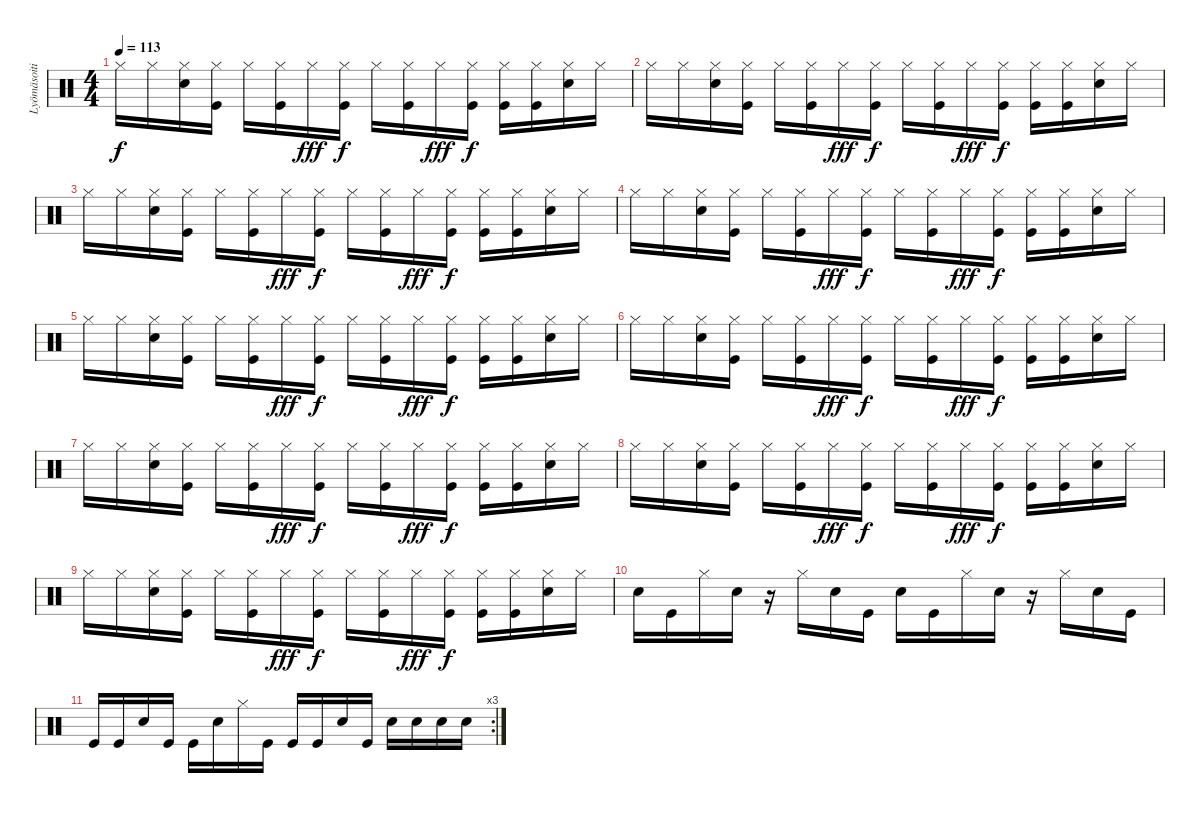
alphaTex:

\track ("Lyömäsoitin" "Lyömäsoiti") {instrument percussion}
\staff {score}
\articulation defaults
\ts (4 4)
\tempo 113
\clef neutral
\ks c "Hi-Hat (closed)".16{dy f} "Hi-Hat (closed)".16
("Hi-Hat (closed)" "Snare (hit) 2").16 ("Hi-Hat (closed)" "Kick (hit)").16 "Hi-Hat (closed)".16 ("Hi-Hat (closed)" "Kick (hit)").16 "Hi-Hat (closed)".16{dy fff} ("Hi-Hat (closed)" "Kick (hit)").16{dy f} "Hi-Hat (closed)".16 ("Hi-Hat (closed)" "Kick (hit)").16 "Hi-Hat (closed)".16{dy fff} ("Hi-Hat (closed)" "Kick (hit)").16{dy f} ("Hi-Hat (closed)" "Kick (hit)").16 ("Hi-Hat (closed)" "Kick (hit)").16 ("Hi-Hat (closed)" "Snare (hit) 2").16 "Hi-Hat (closed)".16 |
"Hi-Hat (closed)".16 "Hi-Hat (closed)".16 ("Hi-Hat (closed)" "Snare (hit) 2").16 ("Hi-Hat (closed)" "Kick (hit)").16 "Hi-Hat (closed)".16 ("Hi-Hat (closed)" "Kick (hit)").16 "Hi-Hat (closed)".16{dy fff} ("Hi-Hat (closed)" "Kick (hit)").16{dy f} "Hi-Hat (closed)".16 ("Hi-Hat (closed)" "Kick (hit)").16 "Hi-Hat (closed)".16{dy fff} ("Hi-Hat (closed)" "Kick (hit)").16{dy f} ("Hi-Hat (closed)" "Kick (hit)").16 ("Hi-Hat (closed)" "Kick (hit)").16 ("Hi-Hat (closed)" "Snare (hit) 2").16 "Hi-Hat (closed)".16 |
"Hi-Hat (closed)".16 "Hi-Hat (closed)".16 ("Hi-Hat (closed)" "Snare (hit) 2").16 ("Hi-Hat (closed)" "Kick (hit)").16 "Hi-Hat (closed)".16 ("Hi-Hat (closed)" "Kick (hit)").16 "Hi-Hat (closed)".16{dy fff} ("Hi-Hat (closed)" "Kick (hit)").16{dy f} "Hi-Hat (closed)".16 ("Hi-Hat (closed)" "Kick (hit)").16 "Hi-Hat (closed)".16{dy fff} ("Hi-Hat (closed)" "Kick (hit)").16{dy f} ("Hi-Hat (closed)" "Kick (hit)").16 ("Hi-Hat (closed)" "Kick (hit)").16 ("Hi-Hat (closed)" "Snare (hit) 2").16 "Hi-Hat (closed)".16 |
"Hi-Hat (closed)".16 "Hi-Hat (closed)".16 ("Hi-Hat (closed)" "Snare (hit) 2").16 ("Hi-Hat (closed)" "Kick (hit)").16 "Hi-Hat (closed)".16 ("Hi-Hat (closed)" "Kick (hit)").16 "Hi-Hat (closed)".16{dy fff} ("Hi-Hat (closed)" "Kick (hit)").16{dy f} "Hi-Hat (closed)".16 ("Hi-Hat (closed)" "Kick (hit)").16 "Hi-Hat (closed)".16{dy fff} ("Hi-Hat (closed)" "Kick (hit)").16{dy f} ("Hi-Hat (closed)" "Kick (hit)").16 ("Hi-Hat (closed)" "Kick (hit)").16 ("Hi-Hat (closed)" "Snare (hit) 2").16 "Hi-Hat (closed)".16 |
"Hi-Hat (closed)".16 "Hi-Hat (closed)".16 ("Hi-Hat (closed)" "Snare (hit) 2").16 ("Hi-Hat (closed)" "Kick (hit)").16 "Hi-Hat (closed)".16 ("Hi-Hat (closed)" "Kick (hit)").16 "Hi-Hat (closed)".16{dy fff} ("Hi-Hat (closed)" "Kick (hit)").16{dy f} "Hi-Hat (closed)".16 ("Hi-Hat (closed)" "Kick (hit)").16 "Hi-Hat (closed)".16{dy fff} ("Hi-Hat (closed)" "Kick (hit)").16{dy f} ("Hi-Hat (closed)" "Kick (hit)").16 ("Hi-Hat (closed)" "Kick (hit)").16 ("Hi-Hat (closed)" "Snare (hit) 2").16 "Hi-Hat (closed)".16 |
"Hi-Hat (closed)".16 "Hi-Hat (closed)".16 ("Hi-Hat (closed)" "Snare (hit) 2").16 ("Hi-Hat (closed)" "Kick (hit)").16 "Hi-Hat (closed)".16 ("Hi-Hat (closed)" "Kick (hit)").16 "Hi-Hat (closed)".16{dy fff} ("Hi-Hat (closed)" "Kick (hit)").16{dy f} "Hi-Hat (closed)".16 ("Hi-Hat (closed)" "Kick (hit)").16 "Hi-Hat (closed)".16{dy fff} ("Hi-Hat (closed)" "Kick (hit)").16{dy f} ("Hi-Hat (closed)" "Kick (hit)").16 ("Hi-Hat (closed)" "Kick (hit)").16 ("Hi-Hat (closed)" "Snare (hit) 2").16 "Hi-Hat (closed)".16 |
"Hi-Hat (closed)".16 "Hi-Hat (closed)".16 ("Hi-Hat (closed)" "Snare (hit) 2").16 ("Hi-Hat (closed)" "Kick (hit)").16 "Hi-Hat (closed)".16 ("Hi-Hat (closed)" "Kick (hit)").16 "Hi-Hat (closed)".16{dy fff} ("Hi-Hat (closed)" "Kick (hit)").16{dy f} "Hi-Hat (closed)".16 ("Hi-Hat (closed)" "Kick (hit)").16 "Hi-Hat (closed)".16{dy fff} ("Hi-Hat (closed)" "Kick (hit)").16{dy f} ("Hi-Hat (closed)" "Kick (hit)").16 ("Hi-Hat (closed)" "Kick (hit)").16 ("Hi-Hat (closed)" "Snare (hit) 2").16 "Hi-Hat (closed)".16 |
"Hi-Hat (closed)".16 "Hi-Hat (closed)".16 ("Hi-Hat (closed)" "Snare (hit) 2").16 ("Hi-Hat (closed)" "Kick (hit)").16 "Hi-Hat (closed)".16 ("Hi-Hat (closed)" "Kick (hit)").16 "Hi-Hat (closed)".16{dy fff} ("Hi-Hat (closed)" "Kick (hit)").16{dy f} "Hi-Hat (closed)".16 ("Hi-Hat (closed)" "Kick (hit)").16 "Hi-Hat (closed)".16{dy fff} ("Hi-Hat (closed)" "Kick (hit)").16{dy f} ("Hi-Hat (closed)" "Kick (hit)").16 ("Hi-Hat (closed)" "Kick (hit)").16 ("Hi-Hat (closed)" "Snare (hit) 2").16 "Hi-Hat (closed)".16 |
"Hi-Hat (closed)".16 "Hi-Hat (closed)".16 ("Hi-Hat (closed)" "Snare (hit) 2").16 ("Hi-Hat (closed)" "Kick (hit)").16 "Hi-Hat (closed)".16 ("Hi-Hat (closed)" "Kick (hit)").16 "Hi-Hat (closed)".16{dy fff} ("Hi-Hat (closed)" "Kick (hit)").16{dy f} "Hi-Hat (closed)".16 ("Hi-Hat (closed)" "Kick (hit)").16 "Hi-Hat (closed)".16{dy fff} ("Hi-Hat (closed)" "Kick (hit)").16{dy f} ("Hi-Hat (closed)" "Kick (hit)").16 ("Hi-Hat (closed)" "Kick (hit)").16 ("Hi-Hat (closed)" "Snare (hit) 2").16 "Hi-Hat (closed)".16 |
"Snare (hit) 2".16 "Kick (hit)".16 "Hi-Hat (closed)".16 "Snare (hit) 2".16 r.16 "Hi-Hat (closed)".16 "Snare (hit) 2".16 "Kick (hit)".16 "Snare (hit) 2".16 "Kick (hit)".16 "Hi-Hat (closed)".16 "Snare (hit) 2".16 r.16 "Hi-Hat (closed)".16 "Snare (hit) 2".16 "Kick (hit)".16 |
\rc 3 "Kick (hit)".16 "Kick (hit)".16 "Snare (hit) 2".16 "Kick (hit)".16 "Kick (hit)".16 "Snare (hit) 2".16 "Hi-Hat (closed)".16 "Kick (hit)".16 "Kick (hit)".16 "Kick (hit)".16 "Snare (hit) 2".16 "Kick (hit)".16 "Snare (hit) 2".16 "Snare (hit) 2".16 "Snare (hit) 2".16 "Snare (hit) 2".16
